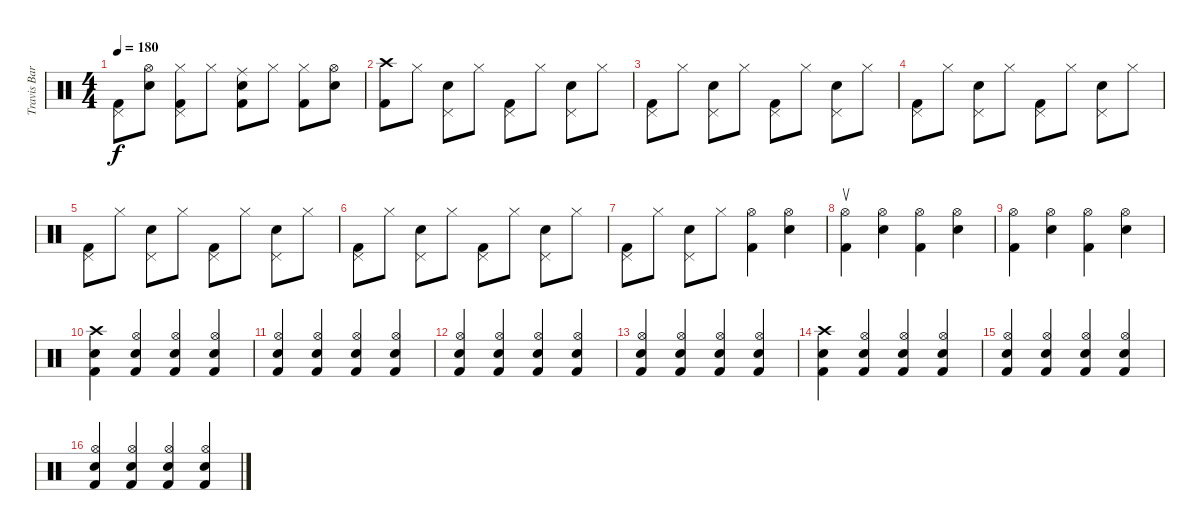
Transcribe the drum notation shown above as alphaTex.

\track ("Travis Barker" "Travis Bar") {instrument percussion}
\staff {score}
\articulation defaults
\ts (4 4)
\tempo 180
\clef neutral
\ks c
("Pedal Hi-Hat (hit)" "Kick (hit) 2").8{dy f} ("Hi-Hat (open)" "Electric Snare (hit)").8 ("Hi-Hat (closed)" "Kick (hit) 2" "Pedal Hi-Hat (hit)").8 "Hi-Hat (closed)".8 ("Ride (middle)" "Electric Snare (hit)" "Kick (hit) 2").8 "Hi-Hat (closed)".8 ("Hi-Hat (closed)" "Kick (hit) 2").8 ("Hi-Hat (open)" "Electric Snare (hit)").8 |
("Crash high (hit)" "Kick (hit) 2").8 "Hi-Hat (closed)".8 ("Pedal Hi-Hat (hit)" "Electric Snare (hit)").8 "Hi-Hat (closed)".8 ("Pedal Hi-Hat (hit)" "Kick (hit) 2").8 "Hi-Hat (closed)".8 ("Pedal Hi-Hat (hit)" "Electric Snare (hit)").8 "Hi-Hat (closed)".8 |
("Pedal Hi-Hat (hit)" "Kick (hit) 2").8 "Hi-Hat (closed)".8 ("Pedal Hi-Hat (hit)" "Electric Snare (hit)").8 "Hi-Hat (closed)".8 ("Pedal Hi-Hat (hit)" "Kick (hit) 2").8 "Hi-Hat (closed)".8 ("Pedal Hi-Hat (hit)" "Electric Snare (hit)").8 "Hi-Hat (closed)".8 |
("Pedal Hi-Hat (hit)" "Kick (hit) 2").8 "Hi-Hat (closed)".8 ("Pedal Hi-Hat (hit)" "Electric Snare (hit)").8 "Hi-Hat (closed)".8 ("Pedal Hi-Hat (hit)" "Kick (hit) 2").8 "Hi-Hat (closed)".8 ("Pedal Hi-Hat (hit)" "Electric Snare (hit)").8 "Hi-Hat (closed)".8 |
("Pedal Hi-Hat (hit)" "Kick (hit) 2").8 "Hi-Hat (closed)".8 ("Pedal Hi-Hat (hit)" "Electric Snare (hit)").8 "Hi-Hat (closed)".8 ("Pedal Hi-Hat (hit)" "Kick (hit) 2").8 "Hi-Hat (closed)".8 ("Pedal Hi-Hat (hit)" "Electric Snare (hit)").8 "Hi-Hat (closed)".8 |
("Pedal Hi-Hat (hit)" "Kick (hit) 2").8 "Hi-Hat (closed)".8 ("Pedal Hi-Hat (hit)" "Electric Snare (hit)").8 "Hi-Hat (closed)".8 ("Pedal Hi-Hat (hit)" "Kick (hit) 2").8 "Hi-Hat (closed)".8 ("Pedal Hi-Hat (hit)" "Electric Snare (hit)").8 "Hi-Hat (closed)".8 |
("Pedal Hi-Hat (hit)" "Kick (hit) 2").8 "Hi-Hat (closed)".8 ("Pedal Hi-Hat (hit)" "Electric Snare (hit)").8 "Hi-Hat (closed)".8 ("Hi-Hat (open)" "Kick (hit) 2").4 ("Hi-Hat (open)" "Electric Snare (hit)").4 |
("Hi-Hat (open)" "Kick (hit) 2").4{su} ("Hi-Hat (open)" "Electric Snare (hit)").4 ("Hi-Hat (open)" "Kick (hit) 2").4 ("Hi-Hat (open)" "Electric Snare (hit)").4 |
("Hi-Hat (open)" "Kick (hit) 2").4 ("Hi-Hat (open)" "Electric Snare (hit)").4 ("Hi-Hat (open)" "Kick (hit) 2").4 ("Hi-Hat (open)" "Electric Snare (hit)").4 |
("Crash high (hit)" "Electric Snare (hit)" "Kick (hit) 2").4 ("Hi-Hat (open)" "Electric Snare (hit)" "Kick (hit) 2").4 ("Hi-Hat (open)" "Electric Snare (hit)" "Kick (hit) 2").4 ("Hi-Hat (open)" "Electric Snare (hit)" "Kick (hit) 2").4 |
("Hi-Hat (open)" "Electric Snare (hit)" "Kick (hit) 2").4 ("Hi-Hat (open)" "Electric Snare (hit)" "Kick (hit) 2").4 ("Hi-Hat (open)" "Electric Snare (hit)" "Kick (hit) 2").4 ("Hi-Hat (open)" "Electric Snare (hit)" "Kick (hit) 2").4 |
("Hi-Hat (open)" "Electric Snare (hit)" "Kick (hit) 2").4 ("Hi-Hat (open)" "Electric Snare (hit)" "Kick (hit) 2").4 ("Hi-Hat (open)" "Electric Snare (hit)" "Kick (hit) 2").4 ("Hi-Hat (open)" "Electric Snare (hit)" "Kick (hit) 2").4 |
("Hi-Hat (open)" "Electric Snare (hit)" "Kick (hit) 2").4 ("Hi-Hat (open)" "Electric Snare (hit)" "Kick (hit) 2").4 ("Hi-Hat (open)" "Electric Snare (hit)" "Kick (hit) 2").4 ("Hi-Hat (open)" "Electric Snare (hit)" "Kick (hit) 2").4 |
("Crash high (hit)" "Electric Snare (hit)" "Kick (hit) 2").4 ("Hi-Hat (open)" "Electric Snare (hit)" "Kick (hit) 2").4 ("Hi-Hat (open)" "Electric Snare (hit)" "Kick (hit) 2").4 ("Hi-Hat (open)" "Electric Snare (hit)" "Kick (hit) 2").4 |
("Hi-Hat (open)" "Electric Snare (hit)" "Kick (hit) 2").4 ("Hi-Hat (open)" "Electric Snare (hit)" "Kick (hit) 2").4 ("Hi-Hat (open)" "Electric Snare (hit)" "Kick (hit) 2").4 ("Hi-Hat (open)" "Electric Snare (hit)" "Kick (hit) 2").4 |
("Hi-Hat (open)" "Electric Snare (hit)" "Kick (hit) 2").4 ("Hi-Hat (open)" "Electric Snare (hit)" "Kick (hit) 2").4 ("Hi-Hat (open)" "Electric Snare (hit)" "Kick (hit) 2").4 ("Hi-Hat (open)" "Electric Snare (hit)" "Kick (hit) 2").4
